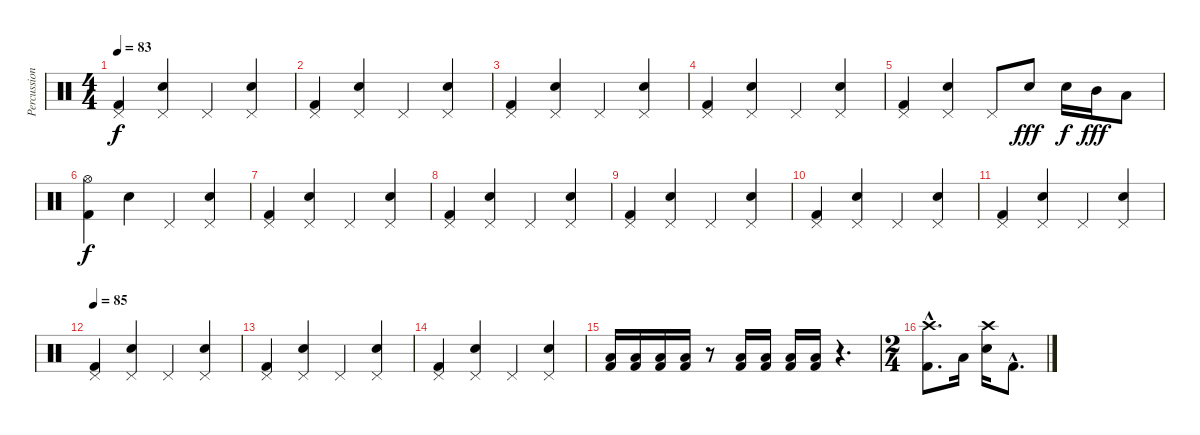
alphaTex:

\track ("Percussion" "Percussion") {instrument percussion}
\staff {score}
\articulation defaults
\ts (4 4)
\tempo 83
\clef neutral
\ks c
("Pedal Hi-Hat (hit)" "Kick (hit) 2").4{dy f} ("Pedal Hi-Hat (hit)" "Electric Snare (hit)").4 "Pedal Hi-Hat (hit)".4 ("Pedal Hi-Hat (hit)" "Electric Snare (hit)").4 |
("Pedal Hi-Hat (hit)" "Kick (hit) 2").4 ("Pedal Hi-Hat (hit)" "Electric Snare (hit)").4 "Pedal Hi-Hat (hit)".4 ("Pedal Hi-Hat (hit)" "Electric Snare (hit)").4 |
("Pedal Hi-Hat (hit)" "Kick (hit) 2").4 ("Pedal Hi-Hat (hit)" "Electric Snare (hit)").4 "Pedal Hi-Hat (hit)".4 ("Pedal Hi-Hat (hit)" "Electric Snare (hit)").4 |
("Pedal Hi-Hat (hit)" "Kick (hit) 2").4 ("Pedal Hi-Hat (hit)" "Electric Snare (hit)").4 "Pedal Hi-Hat (hit)".4 ("Pedal Hi-Hat (hit)" "Electric Snare (hit)").4 |
("Pedal Hi-Hat (hit)" "Kick (hit) 2").4 ("Pedal Hi-Hat (hit)" "Electric Snare (hit)").4 "Pedal Hi-Hat (hit)".8 "Electric Snare (hit)".8{dy fff} "Electric Snare (hit)".16{dy f} "Mid Tom (hit)".16{dy fff} "Low Floor Tom (hit)".8 |
("Hi-Hat (open)" "Kick (hit) 2").4{dy f} "Electric Snare (hit)".4 "Pedal Hi-Hat (hit)".4 ("Pedal Hi-Hat (hit)" "Electric Snare (hit)").4 |
("Pedal Hi-Hat (hit)" "Kick (hit) 2").4 ("Pedal Hi-Hat (hit)" "Electric Snare (hit)").4 "Pedal Hi-Hat (hit)".4 ("Pedal Hi-Hat (hit)" "Electric Snare (hit)").4 |
("Pedal Hi-Hat (hit)" "Kick (hit) 2").4 ("Pedal Hi-Hat (hit)" "Electric Snare (hit)").4 "Pedal Hi-Hat (hit)".4 ("Pedal Hi-Hat (hit)" "Electric Snare (hit)").4 |
("Pedal Hi-Hat (hit)" "Kick (hit) 2").4 ("Pedal Hi-Hat (hit)" "Electric Snare (hit)").4 "Pedal Hi-Hat (hit)".4 ("Pedal Hi-Hat (hit)" "Electric Snare (hit)").4 |
("Pedal Hi-Hat (hit)" "Kick (hit) 2").4 ("Pedal Hi-Hat (hit)" "Electric Snare (hit)").4 "Pedal Hi-Hat (hit)".4 ("Pedal Hi-Hat (hit)" "Electric Snare (hit)").4 |
("Pedal Hi-Hat (hit)" "Kick (hit) 2").4 ("Pedal Hi-Hat (hit)" "Electric Snare (hit)").4 "Pedal Hi-Hat (hit)".4 ("Pedal Hi-Hat (hit)" "Electric Snare (hit)").4 |
\tempo 85
("Pedal Hi-Hat (hit)" "Kick (hit) 2").4 ("Pedal Hi-Hat (hit)" "Electric Snare (hit)").4 "Pedal Hi-Hat (hit)".4 ("Pedal Hi-Hat (hit)" "Electric Snare (hit)").4 |
("Pedal Hi-Hat (hit)" "Kick (hit) 2").4 ("Pedal Hi-Hat (hit)" "Electric Snare (hit)").4 "Pedal Hi-Hat (hit)".4 ("Pedal Hi-Hat (hit)" "Electric Snare (hit)").4 |
("Pedal Hi-Hat (hit)" "Kick (hit) 2").4 ("Pedal Hi-Hat (hit)" "Electric Snare (hit)").4 "Pedal Hi-Hat (hit)".4 ("Pedal Hi-Hat (hit)" "Electric Snare (hit)").4 |
("Low Floor Tom (hit)" "Kick (hit) 2").16 ("Low Floor Tom (hit)" "Kick (hit) 2").16 ("Low Floor Tom (hit)" "Kick (hit) 2").16 ("Low Floor Tom (hit)" "Kick (hit) 2").16 r.8 ("Low Floor Tom (hit)" "Kick (hit) 2").16 ("Low Floor Tom (hit)" "Kick (hit) 2").16 ("Low Floor Tom (hit)" "Kick (hit) 2").16 ("Low Floor Tom (hit)" "Kick (hit) 2").16 r.4{d} |
\ts (2 4)
("Crash high (hit)"{hac} "Kick (hit) 2"{hac}).8{d} "Low Floor Tom (hit)".16 ("Crash high (hit)" "Electric Snare (hit)").16 "Kick (hit) 2"{hac}.8{d}
